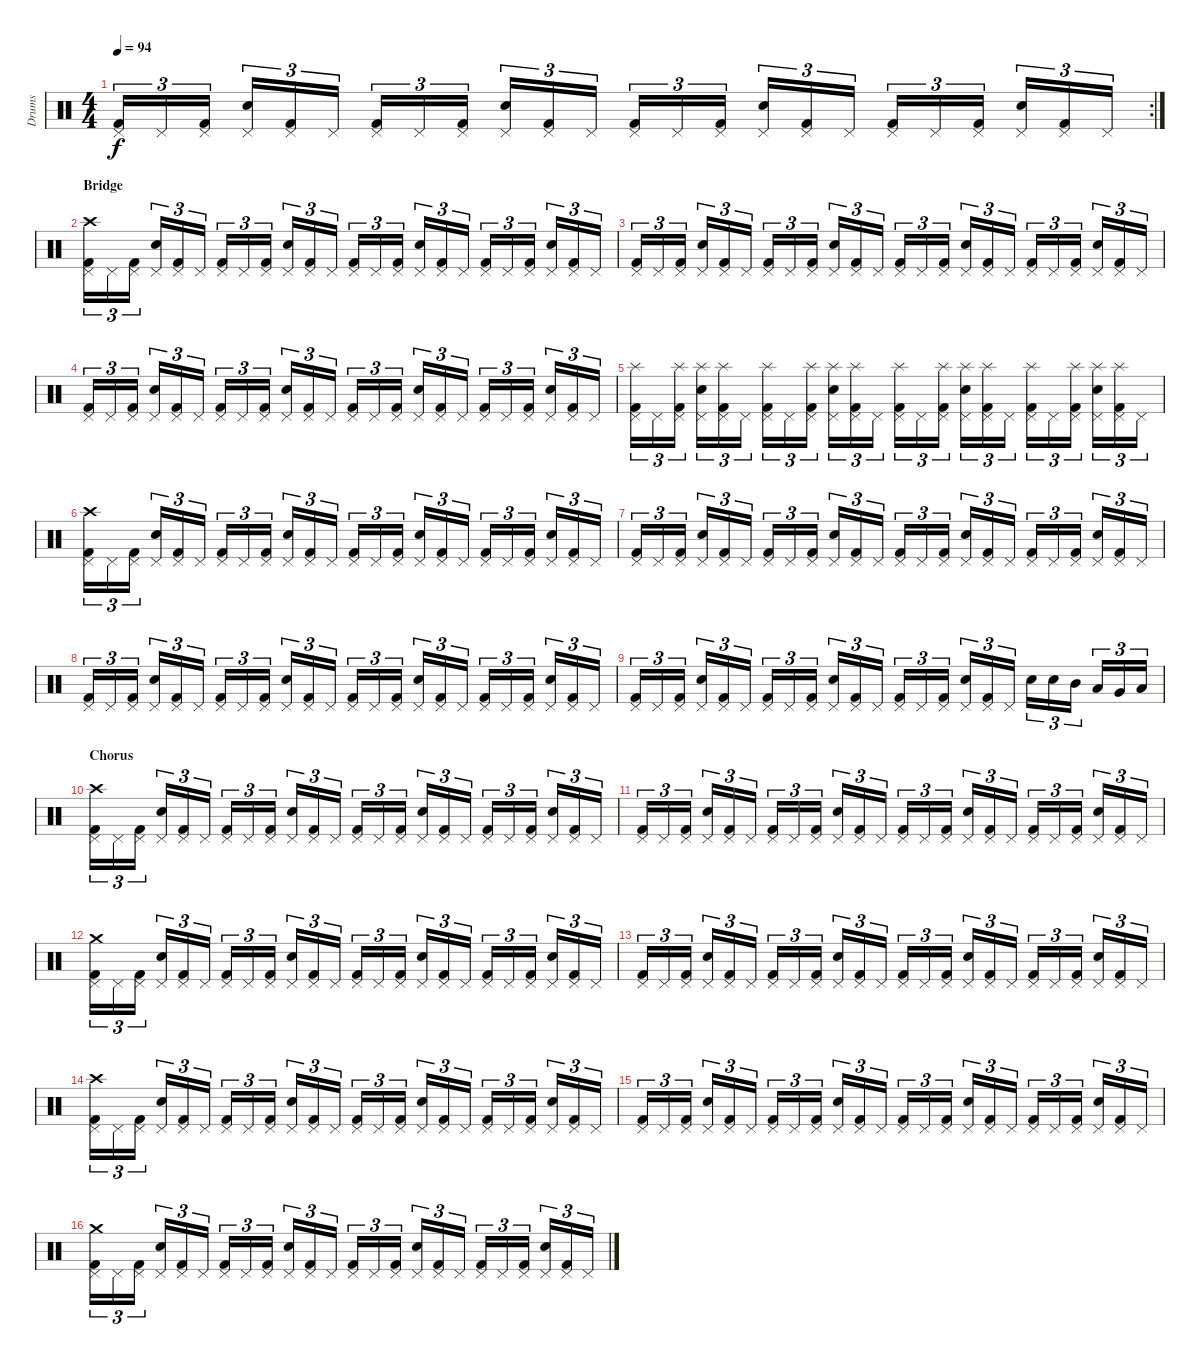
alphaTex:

\track ("Drums" "Drums") {instrument percussion}
\staff {score}
\articulation defaults
\rc 2
\ts (4 4)
\tempo 94
\clef neutral
\ks c
("Kick (hit) 2" "Pedal Hi-Hat (hit)").16{tu (3 2) dy f} "Pedal Hi-Hat (hit)".16{tu (3 2)} ("Kick (hit) 2" "Pedal Hi-Hat (hit)").16{tu (3 2)} ("Snare (hit) 2" "Pedal Hi-Hat (hit)").16{tu (3 2)} ("Kick (hit) 2" "Pedal Hi-Hat (hit)").16{tu (3 2)} "Pedal Hi-Hat (hit)".16{tu (3 2)} ("Kick (hit) 2" "Pedal Hi-Hat (hit)").16{tu (3 2)} "Pedal Hi-Hat (hit)".16{tu (3 2)} ("Kick (hit) 2" "Pedal Hi-Hat (hit)").16{tu (3 2)} ("Snare (hit) 2" "Pedal Hi-Hat (hit)").16{tu (3 2)} ("Kick (hit) 2" "Pedal Hi-Hat (hit)").16{tu (3 2)} "Pedal Hi-Hat (hit)".16{tu (3 2)} ("Kick (hit) 2" "Pedal Hi-Hat (hit)").16{tu (3 2)} "Pedal Hi-Hat (hit)".16{tu (3 2)} ("Kick (hit) 2" "Pedal Hi-Hat (hit)").16{tu (3 2)} ("Snare (hit) 2" "Pedal Hi-Hat (hit)").16{tu (3 2)} ("Kick (hit) 2" "Pedal Hi-Hat (hit)").16{tu (3 2)} "Pedal Hi-Hat (hit)".16{tu (3 2)} ("Kick (hit) 2" "Pedal Hi-Hat (hit)").16{tu (3 2)} "Pedal Hi-Hat (hit)".16{tu (3 2)} ("Kick (hit) 2" "Pedal Hi-Hat (hit)").16{tu (3 2)} ("Snare (hit) 2" "Pedal Hi-Hat (hit)").16{tu (3 2)} ("Kick (hit) 2" "Pedal Hi-Hat (hit)").16{tu (3 2)} "Pedal Hi-Hat (hit)".16{tu (3 2)} |
\section ("" "Bridge")
("Kick (hit) 2" "Pedal Hi-Hat (hit)" "Crash high (hit)").16{tu (3 2)} "Pedal Hi-Hat (hit)".16{tu (3 2)} ("Kick (hit) 2" "Pedal Hi-Hat (hit)").16{tu (3 2)} ("Snare (hit) 2" "Pedal Hi-Hat (hit)").16{tu (3 2)} ("Kick (hit) 2" "Pedal Hi-Hat (hit)").16{tu (3 2)} "Pedal Hi-Hat (hit)".16{tu (3 2)} ("Kick (hit) 2" "Pedal Hi-Hat (hit)").16{tu (3 2)} "Pedal Hi-Hat (hit)".16{tu (3 2)} ("Kick (hit) 2" "Pedal Hi-Hat (hit)").16{tu (3 2)} ("Snare (hit) 2" "Pedal Hi-Hat (hit)").16{tu (3 2)} ("Kick (hit) 2" "Pedal Hi-Hat (hit)").16{tu (3 2)} "Pedal Hi-Hat (hit)".16{tu (3 2)} ("Kick (hit) 2" "Pedal Hi-Hat (hit)").16{tu (3 2)} "Pedal Hi-Hat (hit)".16{tu (3 2)} ("Kick (hit) 2" "Pedal Hi-Hat (hit)").16{tu (3 2)} ("Snare (hit) 2" "Pedal Hi-Hat (hit)").16{tu (3 2)} ("Kick (hit) 2" "Pedal Hi-Hat (hit)").16{tu (3 2)} "Pedal Hi-Hat (hit)".16{tu (3 2)} ("Kick (hit) 2" "Pedal Hi-Hat (hit)").16{tu (3 2)} "Pedal Hi-Hat (hit)".16{tu (3 2)} ("Kick (hit) 2" "Pedal Hi-Hat (hit)").16{tu (3 2)} ("Snare (hit) 2" "Pedal Hi-Hat (hit)").16{tu (3 2)} ("Kick (hit) 2" "Pedal Hi-Hat (hit)").16{tu (3 2)} "Pedal Hi-Hat (hit)".16{tu (3 2)} |
("Kick (hit) 2" "Pedal Hi-Hat (hit)").16{tu (3 2)} "Pedal Hi-Hat (hit)".16{tu (3 2)} ("Kick (hit) 2" "Pedal Hi-Hat (hit)").16{tu (3 2)} ("Snare (hit) 2" "Pedal Hi-Hat (hit)").16{tu (3 2)} ("Kick (hit) 2" "Pedal Hi-Hat (hit)").16{tu (3 2)} "Pedal Hi-Hat (hit)".16{tu (3 2)} ("Kick (hit) 2" "Pedal Hi-Hat (hit)").16{tu (3 2)} "Pedal Hi-Hat (hit)".16{tu (3 2)} ("Kick (hit) 2" "Pedal Hi-Hat (hit)").16{tu (3 2)} ("Snare (hit) 2" "Pedal Hi-Hat (hit)").16{tu (3 2)} ("Kick (hit) 2" "Pedal Hi-Hat (hit)").16{tu (3 2)} "Pedal Hi-Hat (hit)".16{tu (3 2)} ("Kick (hit) 2" "Pedal Hi-Hat (hit)").16{tu (3 2)} "Pedal Hi-Hat (hit)".16{tu (3 2)} ("Kick (hit) 2" "Pedal Hi-Hat (hit)").16{tu (3 2)} ("Snare (hit) 2" "Pedal Hi-Hat (hit)").16{tu (3 2)} ("Kick (hit) 2" "Pedal Hi-Hat (hit)").16{tu (3 2)} "Pedal Hi-Hat (hit)".16{tu (3 2)} ("Kick (hit) 2" "Pedal Hi-Hat (hit)").16{tu (3 2)} "Pedal Hi-Hat (hit)".16{tu (3 2)} ("Kick (hit) 2" "Pedal Hi-Hat (hit)").16{tu (3 2)} ("Snare (hit) 2" "Pedal Hi-Hat (hit)").16{tu (3 2)} ("Kick (hit) 2" "Pedal Hi-Hat (hit)").16{tu (3 2)} "Pedal Hi-Hat (hit)".16{tu (3 2)} |
("Kick (hit) 2" "Pedal Hi-Hat (hit)").16{tu (3 2)} "Pedal Hi-Hat (hit)".16{tu (3 2)} ("Kick (hit) 2" "Pedal Hi-Hat (hit)").16{tu (3 2)} ("Snare (hit) 2" "Pedal Hi-Hat (hit)").16{tu (3 2)} ("Kick (hit) 2" "Pedal Hi-Hat (hit)").16{tu (3 2)} "Pedal Hi-Hat (hit)".16{tu (3 2)} ("Kick (hit) 2" "Pedal Hi-Hat (hit)").16{tu (3 2)} "Pedal Hi-Hat (hit)".16{tu (3 2)} ("Kick (hit) 2" "Pedal Hi-Hat (hit)").16{tu (3 2)} ("Snare (hit) 2" "Pedal Hi-Hat (hit)").16{tu (3 2)} ("Kick (hit) 2" "Pedal Hi-Hat (hit)").16{tu (3 2)} "Pedal Hi-Hat (hit)".16{tu (3 2)} ("Kick (hit) 2" "Pedal Hi-Hat (hit)").16{tu (3 2)} "Pedal Hi-Hat (hit)".16{tu (3 2)} ("Kick (hit) 2" "Pedal Hi-Hat (hit)").16{tu (3 2)} ("Snare (hit) 2" "Pedal Hi-Hat (hit)").16{tu (3 2)} ("Kick (hit) 2" "Pedal Hi-Hat (hit)").16{tu (3 2)} "Pedal Hi-Hat (hit)".16{tu (3 2)} ("Kick (hit) 2" "Pedal Hi-Hat (hit)").16{tu (3 2)} "Pedal Hi-Hat (hit)".16{tu (3 2)} ("Kick (hit) 2" "Pedal Hi-Hat (hit)").16{tu (3 2)} ("Snare (hit) 2" "Pedal Hi-Hat (hit)").16{tu (3 2)} ("Kick (hit) 2" "Pedal Hi-Hat (hit)").16{tu (3 2)} "Pedal Hi-Hat (hit)".16{tu (3 2)} |
("Kick (hit) 2" "Pedal Hi-Hat (hit)" "Splash (hit)").16{tu (3 2)} "Pedal Hi-Hat (hit)".16{tu (3 2)} ("Kick (hit) 2" "Pedal Hi-Hat (hit)" "Splash (hit)").16{tu (3 2)} ("Snare (hit) 2" "Pedal Hi-Hat (hit)" "Splash (hit)").16{tu (3 2)} ("Kick (hit) 2" "Pedal Hi-Hat (hit)" "Splash (hit)").16{tu (3 2)} "Pedal Hi-Hat (hit)".16{tu (3 2)} ("Kick (hit) 2" "Pedal Hi-Hat (hit)" "Splash (hit)").16{tu (3 2)} "Pedal Hi-Hat (hit)".16{tu (3 2)} ("Kick (hit) 2" "Pedal Hi-Hat (hit)" "Splash (hit)").16{tu (3 2)} ("Snare (hit) 2" "Pedal Hi-Hat (hit)" "Splash (hit)").16{tu (3 2)} ("Kick (hit) 2" "Pedal Hi-Hat (hit)" "Splash (hit)").16{tu (3 2)} "Pedal Hi-Hat (hit)".16{tu (3 2)} ("Kick (hit) 2" "Pedal Hi-Hat (hit)" "Splash (hit)").16{tu (3 2)} "Pedal Hi-Hat (hit)".16{tu (3 2)} ("Kick (hit) 2" "Pedal Hi-Hat (hit)" "Splash (hit)").16{tu (3 2)} ("Snare (hit) 2" "Pedal Hi-Hat (hit)" "Splash (hit)").16{tu (3 2)} ("Kick (hit) 2" "Pedal Hi-Hat (hit)" "Splash (hit)").16{tu (3 2)} "Pedal Hi-Hat (hit)".16{tu (3 2)} ("Kick (hit) 2" "Pedal Hi-Hat (hit)" "Splash (hit)").16{tu (3 2)} "Pedal Hi-Hat (hit)".16{tu (3 2)} ("Kick (hit) 2" "Pedal Hi-Hat (hit)" "Splash (hit)").16{tu (3 2)} ("Snare (hit) 2" "Pedal Hi-Hat (hit)" "Splash (hit)").16{tu (3 2)} ("Kick (hit) 2" "Pedal Hi-Hat (hit)" "Splash (hit)").16{tu (3 2)} "Pedal Hi-Hat (hit)".16{tu (3 2)} |
("Kick (hit) 2" "Pedal Hi-Hat (hit)" "Crash high (hit)").16{tu (3 2)} "Pedal Hi-Hat (hit)".16{tu (3 2)} ("Kick (hit) 2" "Pedal Hi-Hat (hit)").16{tu (3 2)} ("Snare (hit) 2" "Pedal Hi-Hat (hit)").16{tu (3 2)} ("Kick (hit) 2" "Pedal Hi-Hat (hit)").16{tu (3 2)} "Pedal Hi-Hat (hit)".16{tu (3 2)} ("Kick (hit) 2" "Pedal Hi-Hat (hit)").16{tu (3 2)} "Pedal Hi-Hat (hit)".16{tu (3 2)} ("Kick (hit) 2" "Pedal Hi-Hat (hit)").16{tu (3 2)} ("Snare (hit) 2" "Pedal Hi-Hat (hit)").16{tu (3 2)} ("Kick (hit) 2" "Pedal Hi-Hat (hit)").16{tu (3 2)} "Pedal Hi-Hat (hit)".16{tu (3 2)} ("Kick (hit) 2" "Pedal Hi-Hat (hit)").16{tu (3 2)} "Pedal Hi-Hat (hit)".16{tu (3 2)} ("Kick (hit) 2" "Pedal Hi-Hat (hit)").16{tu (3 2)} ("Snare (hit) 2" "Pedal Hi-Hat (hit)").16{tu (3 2)} ("Kick (hit) 2" "Pedal Hi-Hat (hit)").16{tu (3 2)} "Pedal Hi-Hat (hit)".16{tu (3 2)} ("Kick (hit) 2" "Pedal Hi-Hat (hit)").16{tu (3 2)} "Pedal Hi-Hat (hit)".16{tu (3 2)} ("Kick (hit) 2" "Pedal Hi-Hat (hit)").16{tu (3 2)} ("Snare (hit) 2" "Pedal Hi-Hat (hit)").16{tu (3 2)} ("Kick (hit) 2" "Pedal Hi-Hat (hit)").16{tu (3 2)} "Pedal Hi-Hat (hit)".16{tu (3 2)} |
("Kick (hit) 2" "Pedal Hi-Hat (hit)").16{tu (3 2)} "Pedal Hi-Hat (hit)".16{tu (3 2)} ("Kick (hit) 2" "Pedal Hi-Hat (hit)").16{tu (3 2)} ("Snare (hit) 2" "Pedal Hi-Hat (hit)").16{tu (3 2)} ("Kick (hit) 2" "Pedal Hi-Hat (hit)").16{tu (3 2)} "Pedal Hi-Hat (hit)".16{tu (3 2)} ("Kick (hit) 2" "Pedal Hi-Hat (hit)").16{tu (3 2)} "Pedal Hi-Hat (hit)".16{tu (3 2)} ("Kick (hit) 2" "Pedal Hi-Hat (hit)").16{tu (3 2)} ("Snare (hit) 2" "Pedal Hi-Hat (hit)").16{tu (3 2)} ("Kick (hit) 2" "Pedal Hi-Hat (hit)").16{tu (3 2)} "Pedal Hi-Hat (hit)".16{tu (3 2)} ("Kick (hit) 2" "Pedal Hi-Hat (hit)").16{tu (3 2)} "Pedal Hi-Hat (hit)".16{tu (3 2)} ("Kick (hit) 2" "Pedal Hi-Hat (hit)").16{tu (3 2)} ("Snare (hit) 2" "Pedal Hi-Hat (hit)").16{tu (3 2)} ("Kick (hit) 2" "Pedal Hi-Hat (hit)").16{tu (3 2)} "Pedal Hi-Hat (hit)".16{tu (3 2)} ("Kick (hit) 2" "Pedal Hi-Hat (hit)").16{tu (3 2)} "Pedal Hi-Hat (hit)".16{tu (3 2)} ("Kick (hit) 2" "Pedal Hi-Hat (hit)").16{tu (3 2)} ("Snare (hit) 2" "Pedal Hi-Hat (hit)").16{tu (3 2)} ("Kick (hit) 2" "Pedal Hi-Hat (hit)").16{tu (3 2)} "Pedal Hi-Hat (hit)".16{tu (3 2)} |
("Kick (hit) 2" "Pedal Hi-Hat (hit)").16{tu (3 2)} "Pedal Hi-Hat (hit)".16{tu (3 2)} ("Kick (hit) 2" "Pedal Hi-Hat (hit)").16{tu (3 2)} ("Snare (hit) 2" "Pedal Hi-Hat (hit)").16{tu (3 2)} ("Kick (hit) 2" "Pedal Hi-Hat (hit)").16{tu (3 2)} "Pedal Hi-Hat (hit)".16{tu (3 2)} ("Kick (hit) 2" "Pedal Hi-Hat (hit)").16{tu (3 2)} "Pedal Hi-Hat (hit)".16{tu (3 2)} ("Kick (hit) 2" "Pedal Hi-Hat (hit)").16{tu (3 2)} ("Snare (hit) 2" "Pedal Hi-Hat (hit)").16{tu (3 2)} ("Kick (hit) 2" "Pedal Hi-Hat (hit)").16{tu (3 2)} "Pedal Hi-Hat (hit)".16{tu (3 2)} ("Kick (hit) 2" "Pedal Hi-Hat (hit)").16{tu (3 2)} "Pedal Hi-Hat (hit)".16{tu (3 2)} ("Kick (hit) 2" "Pedal Hi-Hat (hit)").16{tu (3 2)} ("Snare (hit) 2" "Pedal Hi-Hat (hit)").16{tu (3 2)} ("Kick (hit) 2" "Pedal Hi-Hat (hit)").16{tu (3 2)} "Pedal Hi-Hat (hit)".16{tu (3 2)} ("Kick (hit) 2" "Pedal Hi-Hat (hit)").16{tu (3 2)} "Pedal Hi-Hat (hit)".16{tu (3 2)} ("Kick (hit) 2" "Pedal Hi-Hat (hit)").16{tu (3 2)} ("Snare (hit) 2" "Pedal Hi-Hat (hit)").16{tu (3 2)} ("Kick (hit) 2" "Pedal Hi-Hat (hit)").16{tu (3 2)} "Pedal Hi-Hat (hit)".16{tu (3 2)} |
("Kick (hit) 2" "Pedal Hi-Hat (hit)").16{tu (3 2)} "Pedal Hi-Hat (hit)".16{tu (3 2)} ("Kick (hit) 2" "Pedal Hi-Hat (hit)").16{tu (3 2)} ("Snare (hit) 2" "Pedal Hi-Hat (hit)").16{tu (3 2)} ("Kick (hit) 2" "Pedal Hi-Hat (hit)").16{tu (3 2)} "Pedal Hi-Hat (hit)".16{tu (3 2)} ("Kick (hit) 2" "Pedal Hi-Hat (hit)").16{tu (3 2)} "Pedal Hi-Hat (hit)".16{tu (3 2)} ("Kick (hit) 2" "Pedal Hi-Hat (hit)").16{tu (3 2)} ("Snare (hit) 2" "Pedal Hi-Hat (hit)").16{tu (3 2)} ("Kick (hit) 2" "Pedal Hi-Hat (hit)").16{tu (3 2)} "Pedal Hi-Hat (hit)".16{tu (3 2)} ("Kick (hit) 2" "Pedal Hi-Hat (hit)").16{tu (3 2)} "Pedal Hi-Hat (hit)".16{tu (3 2)} ("Kick (hit) 2" "Pedal Hi-Hat (hit)").16{tu (3 2)} ("Snare (hit) 2" "Pedal Hi-Hat (hit)").16{tu (3 2)} ("Kick (hit) 2" "Pedal Hi-Hat (hit)").16{tu (3 2)} "Pedal Hi-Hat (hit)".16{tu (3 2)} "Snare (hit) 2".16{tu (3 2)} "Snare (hit) 2".16{tu (3 2)} "Mid Tom (hit)".16{tu (3 2)} "Low Tom (hit)".16{tu (3 2)} "Very Low Tom (hit)".16{tu (3 2)} "Low Floor Tom (hit)".16{tu (3 2)} |
\section ("" "Chorus")
("Kick (hit) 2" "Pedal Hi-Hat (hit)" "Crash high (hit)").16{tu (3 2)} "Pedal Hi-Hat (hit)".16{tu (3 2)} ("Kick (hit) 2" "Pedal Hi-Hat (hit)").16{tu (3 2)} ("Snare (hit) 2" "Pedal Hi-Hat (hit)").16{tu (3 2)} ("Kick (hit) 2" "Pedal Hi-Hat (hit)").16{tu (3 2)} "Pedal Hi-Hat (hit)".16{tu (3 2)} ("Kick (hit) 2" "Pedal Hi-Hat (hit)").16{tu (3 2)} "Pedal Hi-Hat (hit)".16{tu (3 2)} ("Kick (hit) 2" "Pedal Hi-Hat (hit)").16{tu (3 2)} ("Snare (hit) 2" "Pedal Hi-Hat (hit)").16{tu (3 2)} ("Kick (hit) 2" "Pedal Hi-Hat (hit)").16{tu (3 2)} "Pedal Hi-Hat (hit)".16{tu (3 2)} ("Kick (hit) 2" "Pedal Hi-Hat (hit)").16{tu (3 2)} "Pedal Hi-Hat (hit)".16{tu (3 2)} ("Kick (hit) 2" "Pedal Hi-Hat (hit)").16{tu (3 2)} ("Snare (hit) 2" "Pedal Hi-Hat (hit)").16{tu (3 2)} ("Kick (hit) 2" "Pedal Hi-Hat (hit)").16{tu (3 2)} "Pedal Hi-Hat (hit)".16{tu (3 2)} ("Kick (hit) 2" "Pedal Hi-Hat (hit)").16{tu (3 2)} "Pedal Hi-Hat (hit)".16{tu (3 2)} ("Kick (hit) 2" "Pedal Hi-Hat (hit)").16{tu (3 2)} ("Snare (hit) 2" "Pedal Hi-Hat (hit)").16{tu (3 2)} ("Kick (hit) 2" "Pedal Hi-Hat (hit)").16{tu (3 2)} "Pedal Hi-Hat (hit)".16{tu (3 2)} |
("Kick (hit) 2" "Pedal Hi-Hat (hit)").16{tu (3 2)} "Pedal Hi-Hat (hit)".16{tu (3 2)} ("Kick (hit) 2" "Pedal Hi-Hat (hit)").16{tu (3 2)} ("Snare (hit) 2" "Pedal Hi-Hat (hit)").16{tu (3 2)} ("Kick (hit) 2" "Pedal Hi-Hat (hit)").16{tu (3 2)} "Pedal Hi-Hat (hit)".16{tu (3 2)} ("Kick (hit) 2" "Pedal Hi-Hat (hit)").16{tu (3 2)} "Pedal Hi-Hat (hit)".16{tu (3 2)} ("Kick (hit) 2" "Pedal Hi-Hat (hit)").16{tu (3 2)} ("Snare (hit) 2" "Pedal Hi-Hat (hit)").16{tu (3 2)} ("Kick (hit) 2" "Pedal Hi-Hat (hit)").16{tu (3 2)} "Pedal Hi-Hat (hit)".16{tu (3 2)} ("Kick (hit) 2" "Pedal Hi-Hat (hit)").16{tu (3 2)} "Pedal Hi-Hat (hit)".16{tu (3 2)} ("Kick (hit) 2" "Pedal Hi-Hat (hit)").16{tu (3 2)} ("Snare (hit) 2" "Pedal Hi-Hat (hit)").16{tu (3 2)} ("Kick (hit) 2" "Pedal Hi-Hat (hit)").16{tu (3 2)} "Pedal Hi-Hat (hit)".16{tu (3 2)} ("Kick (hit) 2" "Pedal Hi-Hat (hit)").16{tu (3 2)} "Pedal Hi-Hat (hit)".16{tu (3 2)} ("Kick (hit) 2" "Pedal Hi-Hat (hit)").16{tu (3 2)} ("Snare (hit) 2" "Pedal Hi-Hat (hit)").16{tu (3 2)} ("Kick (hit) 2" "Pedal Hi-Hat (hit)").16{tu (3 2)} "Pedal Hi-Hat (hit)".16{tu (3 2)} |
("Kick (hit) 2" "Pedal Hi-Hat (hit)" "Crash medium (hit)").16{tu (3 2)} "Pedal Hi-Hat (hit)".16{tu (3 2)} ("Kick (hit) 2" "Pedal Hi-Hat (hit)").16{tu (3 2)} ("Snare (hit) 2" "Pedal Hi-Hat (hit)").16{tu (3 2)} ("Kick (hit) 2" "Pedal Hi-Hat (hit)").16{tu (3 2)} "Pedal Hi-Hat (hit)".16{tu (3 2)} ("Kick (hit) 2" "Pedal Hi-Hat (hit)").16{tu (3 2)} "Pedal Hi-Hat (hit)".16{tu (3 2)} ("Kick (hit) 2" "Pedal Hi-Hat (hit)").16{tu (3 2)} ("Snare (hit) 2" "Pedal Hi-Hat (hit)").16{tu (3 2)} ("Kick (hit) 2" "Pedal Hi-Hat (hit)").16{tu (3 2)} "Pedal Hi-Hat (hit)".16{tu (3 2)} ("Kick (hit) 2" "Pedal Hi-Hat (hit)").16{tu (3 2)} "Pedal Hi-Hat (hit)".16{tu (3 2)} ("Kick (hit) 2" "Pedal Hi-Hat (hit)").16{tu (3 2)} ("Snare (hit) 2" "Pedal Hi-Hat (hit)").16{tu (3 2)} ("Kick (hit) 2" "Pedal Hi-Hat (hit)").16{tu (3 2)} "Pedal Hi-Hat (hit)".16{tu (3 2)} ("Kick (hit) 2" "Pedal Hi-Hat (hit)").16{tu (3 2)} "Pedal Hi-Hat (hit)".16{tu (3 2)} ("Kick (hit) 2" "Pedal Hi-Hat (hit)").16{tu (3 2)} ("Snare (hit) 2" "Pedal Hi-Hat (hit)").16{tu (3 2)} ("Kick (hit) 2" "Pedal Hi-Hat (hit)").16{tu (3 2)} "Pedal Hi-Hat (hit)".16{tu (3 2)} |
("Kick (hit) 2" "Pedal Hi-Hat (hit)").16{tu (3 2)} "Pedal Hi-Hat (hit)".16{tu (3 2)} ("Kick (hit) 2" "Pedal Hi-Hat (hit)").16{tu (3 2)} ("Snare (hit) 2" "Pedal Hi-Hat (hit)").16{tu (3 2)} ("Kick (hit) 2" "Pedal Hi-Hat (hit)").16{tu (3 2)} "Pedal Hi-Hat (hit)".16{tu (3 2)} ("Kick (hit) 2" "Pedal Hi-Hat (hit)").16{tu (3 2)} "Pedal Hi-Hat (hit)".16{tu (3 2)} ("Kick (hit) 2" "Pedal Hi-Hat (hit)").16{tu (3 2)} ("Snare (hit) 2" "Pedal Hi-Hat (hit)").16{tu (3 2)} ("Kick (hit) 2" "Pedal Hi-Hat (hit)").16{tu (3 2)} "Pedal Hi-Hat (hit)".16{tu (3 2)} ("Kick (hit) 2" "Pedal Hi-Hat (hit)").16{tu (3 2)} "Pedal Hi-Hat (hit)".16{tu (3 2)} ("Kick (hit) 2" "Pedal Hi-Hat (hit)").16{tu (3 2)} ("Snare (hit) 2" "Pedal Hi-Hat (hit)").16{tu (3 2)} ("Kick (hit) 2" "Pedal Hi-Hat (hit)").16{tu (3 2)} "Pedal Hi-Hat (hit)".16{tu (3 2)} ("Kick (hit) 2" "Pedal Hi-Hat (hit)").16{tu (3 2)} "Pedal Hi-Hat (hit)".16{tu (3 2)} ("Kick (hit) 2" "Pedal Hi-Hat (hit)").16{tu (3 2)} ("Snare (hit) 2" "Pedal Hi-Hat (hit)").16{tu (3 2)} ("Kick (hit) 2" "Pedal Hi-Hat (hit)").16{tu (3 2)} "Pedal Hi-Hat (hit)".16{tu (3 2)} |
("Kick (hit) 2" "Pedal Hi-Hat (hit)" "Crash high (hit)").16{tu (3 2)} "Pedal Hi-Hat (hit)".16{tu (3 2)} ("Kick (hit) 2" "Pedal Hi-Hat (hit)").16{tu (3 2)} ("Snare (hit) 2" "Pedal Hi-Hat (hit)").16{tu (3 2)} ("Kick (hit) 2" "Pedal Hi-Hat (hit)").16{tu (3 2)} "Pedal Hi-Hat (hit)".16{tu (3 2)} ("Kick (hit) 2" "Pedal Hi-Hat (hit)").16{tu (3 2)} "Pedal Hi-Hat (hit)".16{tu (3 2)} ("Kick (hit) 2" "Pedal Hi-Hat (hit)").16{tu (3 2)} ("Snare (hit) 2" "Pedal Hi-Hat (hit)").16{tu (3 2)} ("Kick (hit) 2" "Pedal Hi-Hat (hit)").16{tu (3 2)} "Pedal Hi-Hat (hit)".16{tu (3 2)} ("Kick (hit) 2" "Pedal Hi-Hat (hit)").16{tu (3 2)} "Pedal Hi-Hat (hit)".16{tu (3 2)} ("Kick (hit) 2" "Pedal Hi-Hat (hit)").16{tu (3 2)} ("Snare (hit) 2" "Pedal Hi-Hat (hit)").16{tu (3 2)} ("Kick (hit) 2" "Pedal Hi-Hat (hit)").16{tu (3 2)} "Pedal Hi-Hat (hit)".16{tu (3 2)} ("Kick (hit) 2" "Pedal Hi-Hat (hit)").16{tu (3 2)} "Pedal Hi-Hat (hit)".16{tu (3 2)} ("Kick (hit) 2" "Pedal Hi-Hat (hit)").16{tu (3 2)} ("Snare (hit) 2" "Pedal Hi-Hat (hit)").16{tu (3 2)} ("Kick (hit) 2" "Pedal Hi-Hat (hit)").16{tu (3 2)} "Pedal Hi-Hat (hit)".16{tu (3 2)} |
("Kick (hit) 2" "Pedal Hi-Hat (hit)").16{tu (3 2)} "Pedal Hi-Hat (hit)".16{tu (3 2)} ("Kick (hit) 2" "Pedal Hi-Hat (hit)").16{tu (3 2)} ("Snare (hit) 2" "Pedal Hi-Hat (hit)").16{tu (3 2)} ("Kick (hit) 2" "Pedal Hi-Hat (hit)").16{tu (3 2)} "Pedal Hi-Hat (hit)".16{tu (3 2)} ("Kick (hit) 2" "Pedal Hi-Hat (hit)").16{tu (3 2)} "Pedal Hi-Hat (hit)".16{tu (3 2)} ("Kick (hit) 2" "Pedal Hi-Hat (hit)").16{tu (3 2)} ("Snare (hit) 2" "Pedal Hi-Hat (hit)").16{tu (3 2)} ("Kick (hit) 2" "Pedal Hi-Hat (hit)").16{tu (3 2)} "Pedal Hi-Hat (hit)".16{tu (3 2)} ("Kick (hit) 2" "Pedal Hi-Hat (hit)").16{tu (3 2)} "Pedal Hi-Hat (hit)".16{tu (3 2)} ("Kick (hit) 2" "Pedal Hi-Hat (hit)").16{tu (3 2)} ("Snare (hit) 2" "Pedal Hi-Hat (hit)").16{tu (3 2)} ("Kick (hit) 2" "Pedal Hi-Hat (hit)").16{tu (3 2)} "Pedal Hi-Hat (hit)".16{tu (3 2)} ("Kick (hit) 2" "Pedal Hi-Hat (hit)").16{tu (3 2)} "Pedal Hi-Hat (hit)".16{tu (3 2)} ("Kick (hit) 2" "Pedal Hi-Hat (hit)").16{tu (3 2)} ("Snare (hit) 2" "Pedal Hi-Hat (hit)").16{tu (3 2)} ("Kick (hit) 2" "Pedal Hi-Hat (hit)").16{tu (3 2)} "Pedal Hi-Hat (hit)".16{tu (3 2)} |
("Kick (hit) 2" "Pedal Hi-Hat (hit)" "Crash medium (hit)").16{tu (3 2)} "Pedal Hi-Hat (hit)".16{tu (3 2)} ("Kick (hit) 2" "Pedal Hi-Hat (hit)").16{tu (3 2)} ("Snare (hit) 2" "Pedal Hi-Hat (hit)").16{tu (3 2)} ("Kick (hit) 2" "Pedal Hi-Hat (hit)").16{tu (3 2)} "Pedal Hi-Hat (hit)".16{tu (3 2)} ("Kick (hit) 2" "Pedal Hi-Hat (hit)").16{tu (3 2)} "Pedal Hi-Hat (hit)".16{tu (3 2)} ("Kick (hit) 2" "Pedal Hi-Hat (hit)").16{tu (3 2)} ("Snare (hit) 2" "Pedal Hi-Hat (hit)").16{tu (3 2)} ("Kick (hit) 2" "Pedal Hi-Hat (hit)").16{tu (3 2)} "Pedal Hi-Hat (hit)".16{tu (3 2)} ("Kick (hit) 2" "Pedal Hi-Hat (hit)").16{tu (3 2)} "Pedal Hi-Hat (hit)".16{tu (3 2)} ("Kick (hit) 2" "Pedal Hi-Hat (hit)").16{tu (3 2)} ("Snare (hit) 2" "Pedal Hi-Hat (hit)").16{tu (3 2)} ("Kick (hit) 2" "Pedal Hi-Hat (hit)").16{tu (3 2)} "Pedal Hi-Hat (hit)".16{tu (3 2)} ("Kick (hit) 2" "Pedal Hi-Hat (hit)").16{tu (3 2)} "Pedal Hi-Hat (hit)".16{tu (3 2)} ("Kick (hit) 2" "Pedal Hi-Hat (hit)").16{tu (3 2)} ("Snare (hit) 2" "Pedal Hi-Hat (hit)").16{tu (3 2)} ("Kick (hit) 2" "Pedal Hi-Hat (hit)").16{tu (3 2)} "Pedal Hi-Hat (hit)".16{tu (3 2)}
